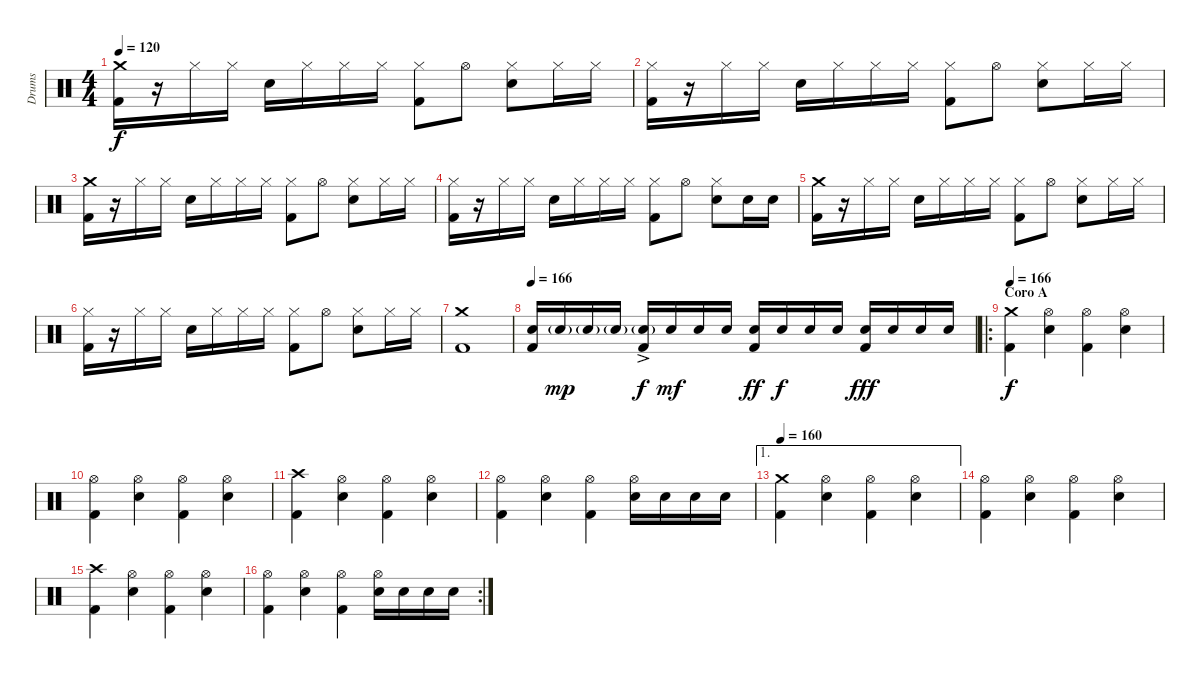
\track ("Drums" "Drums") {instrument percussion}
\staff {score}
\articulation defaults
\ts (4 4)
\tempo 120
\clef neutral
\ks c
("Crash medium (hit)" "Kick (hit) 2").16{dy f} r.16 "Hi-Hat (closed)".16 "Hi-Hat (closed)".16 "Electric Snare (hit)".16 "Hi-Hat (closed)".16 "Hi-Hat (closed)".16 "Hi-Hat (closed)".16 ("Hi-Hat (closed)" "Kick (hit) 2").8 "Hi-Hat (open)".8 ("Hi-Hat (closed)" "Electric Snare (hit)").8 "Hi-Hat (closed)".16 "Hi-Hat (closed)".16 |
("Hi-Hat (closed)" "Kick (hit) 2").16 r.16 "Hi-Hat (closed)".16 "Hi-Hat (closed)".16 "Electric Snare (hit)".16 "Hi-Hat (closed)".16 "Hi-Hat (closed)".16 "Hi-Hat (closed)".16 ("Hi-Hat (closed)" "Kick (hit) 2").8 "Hi-Hat (open)".8 ("Hi-Hat (closed)" "Electric Snare (hit)").8 "Hi-Hat (closed)".16 "Hi-Hat (closed)".16 |
("Crash medium (hit)" "Kick (hit) 2").16 r.16 "Hi-Hat (closed)".16 "Hi-Hat (closed)".16 "Electric Snare (hit)".16 "Hi-Hat (closed)".16 "Hi-Hat (closed)".16 "Hi-Hat (closed)".16 ("Hi-Hat (closed)" "Kick (hit) 2").8 "Hi-Hat (open)".8 ("Hi-Hat (closed)" "Electric Snare (hit)").8 "Hi-Hat (closed)".16 "Hi-Hat (closed)".16 |
("Hi-Hat (closed)" "Kick (hit) 2").16 r.16 "Hi-Hat (closed)".16 "Hi-Hat (closed)".16 "Electric Snare (hit)".16 "Hi-Hat (closed)".16 "Hi-Hat (closed)".16 "Hi-Hat (closed)".16 ("Hi-Hat (closed)" "Kick (hit) 2").8 "Hi-Hat (open)".8 ("Hi-Hat (closed)" "Electric Snare (hit)").8 "Electric Snare (hit)".16 "Electric Snare (hit)".16 |
("Crash medium (hit)" "Kick (hit) 2").16 r.16 "Hi-Hat (closed)".16 "Hi-Hat (closed)".16 "Electric Snare (hit)".16 "Hi-Hat (closed)".16 "Hi-Hat (closed)".16 "Hi-Hat (closed)".16 ("Hi-Hat (closed)" "Kick (hit) 2").8 "Hi-Hat (open)".8 ("Hi-Hat (closed)" "Electric Snare (hit)").8 "Hi-Hat (closed)".16 "Hi-Hat (closed)".16 |
("Hi-Hat (closed)" "Kick (hit) 2").16 r.16 "Hi-Hat (closed)".16 "Hi-Hat (closed)".16 "Electric Snare (hit)".16 "Hi-Hat (closed)".16 "Hi-Hat (closed)".16 "Hi-Hat (closed)".16 ("Hi-Hat (closed)" "Kick (hit) 2").8 "Hi-Hat (open)".8 ("Hi-Hat (closed)" "Electric Snare (hit)").8 "Hi-Hat (closed)".16 "Hi-Hat (closed)".16 |
("Crash medium (hit)" "Kick (hit) 2").1 |
\tempo 166
("Electric Snare (hit)" "Kick (hit) 2").16 "Electric Snare (hit)"{g}.16{dy mp} "Electric Snare (hit)"{g}.16 "Electric Snare (hit)"{g}.16 ("Electric Snare (hit)"{g ac} "Kick (hit) 2").16{dy f} "Electric Snare (hit)".16{dy mf} "Electric Snare (hit)".16 "Electric Snare (hit)".16 ("Electric Snare (hit)" "Kick (hit) 2").16{dy ff} "Electric Snare (hit)".16{dy f} "Electric Snare (hit)".16 "Electric Snare (hit)".16 ("Electric Snare (hit)" "Kick (hit) 2").16{dy fff} "Electric Snare (hit)".16 "Electric Snare (hit)".16 "Electric Snare (hit)".16 |
\ro
\section ("" "Coro A")
\tempo 166
("Crash medium (hit)" "Kick (hit) 2").4{dy f} ("Hi-Hat (open)" "Electric Snare (hit)").4 ("Hi-Hat (open)" "Kick (hit) 2").4 ("Hi-Hat (open)" "Electric Snare (hit)").4 |
("Hi-Hat (open)" "Kick (hit) 2").4 ("Hi-Hat (open)" "Electric Snare (hit)").4 ("Hi-Hat (open)" "Kick (hit) 2").4 ("Hi-Hat (open)" "Electric Snare (hit)").4 |
("Crash high (hit)" "Kick (hit) 2").4 ("Hi-Hat (open)" "Electric Snare (hit)").4 ("Hi-Hat (open)" "Kick (hit) 2").4 ("Hi-Hat (open)" "Electric Snare (hit)").4 |
("Hi-Hat (open)" "Kick (hit) 2").4 ("Hi-Hat (open)" "Electric Snare (hit)").4 ("Hi-Hat (open)" "Kick (hit) 2").4 ("Hi-Hat (open)" "Electric Snare (hit)").16 "Electric Snare (hit)".16 "Electric Snare (hit)".16 "Electric Snare (hit)".16 |
\ae 1
\tempo 160
("Crash medium (hit)" "Kick (hit) 2").4 ("Hi-Hat (open)" "Electric Snare (hit)").4 ("Hi-Hat (open)" "Kick (hit) 2").4 ("Hi-Hat (open)" "Electric Snare (hit)").4 |
("Hi-Hat (open)" "Kick (hit) 2").4 ("Hi-Hat (open)" "Electric Snare (hit)").4 ("Hi-Hat (open)" "Kick (hit) 2").4 ("Hi-Hat (open)" "Electric Snare (hit)").4 |
("Crash high (hit)" "Kick (hit) 2").4 ("Hi-Hat (open)" "Electric Snare (hit)").4 ("Hi-Hat (open)" "Kick (hit) 2").4 ("Hi-Hat (open)" "Electric Snare (hit)").4 |
\rc 2
("Hi-Hat (open)" "Kick (hit) 2").4 ("Hi-Hat (open)" "Electric Snare (hit)").4 ("Hi-Hat (open)" "Kick (hit) 2").4 ("Hi-Hat (open)" "Electric Snare (hit)").16 "Electric Snare (hit)".16 "Electric Snare (hit)".16 "Electric Snare (hit)".16
